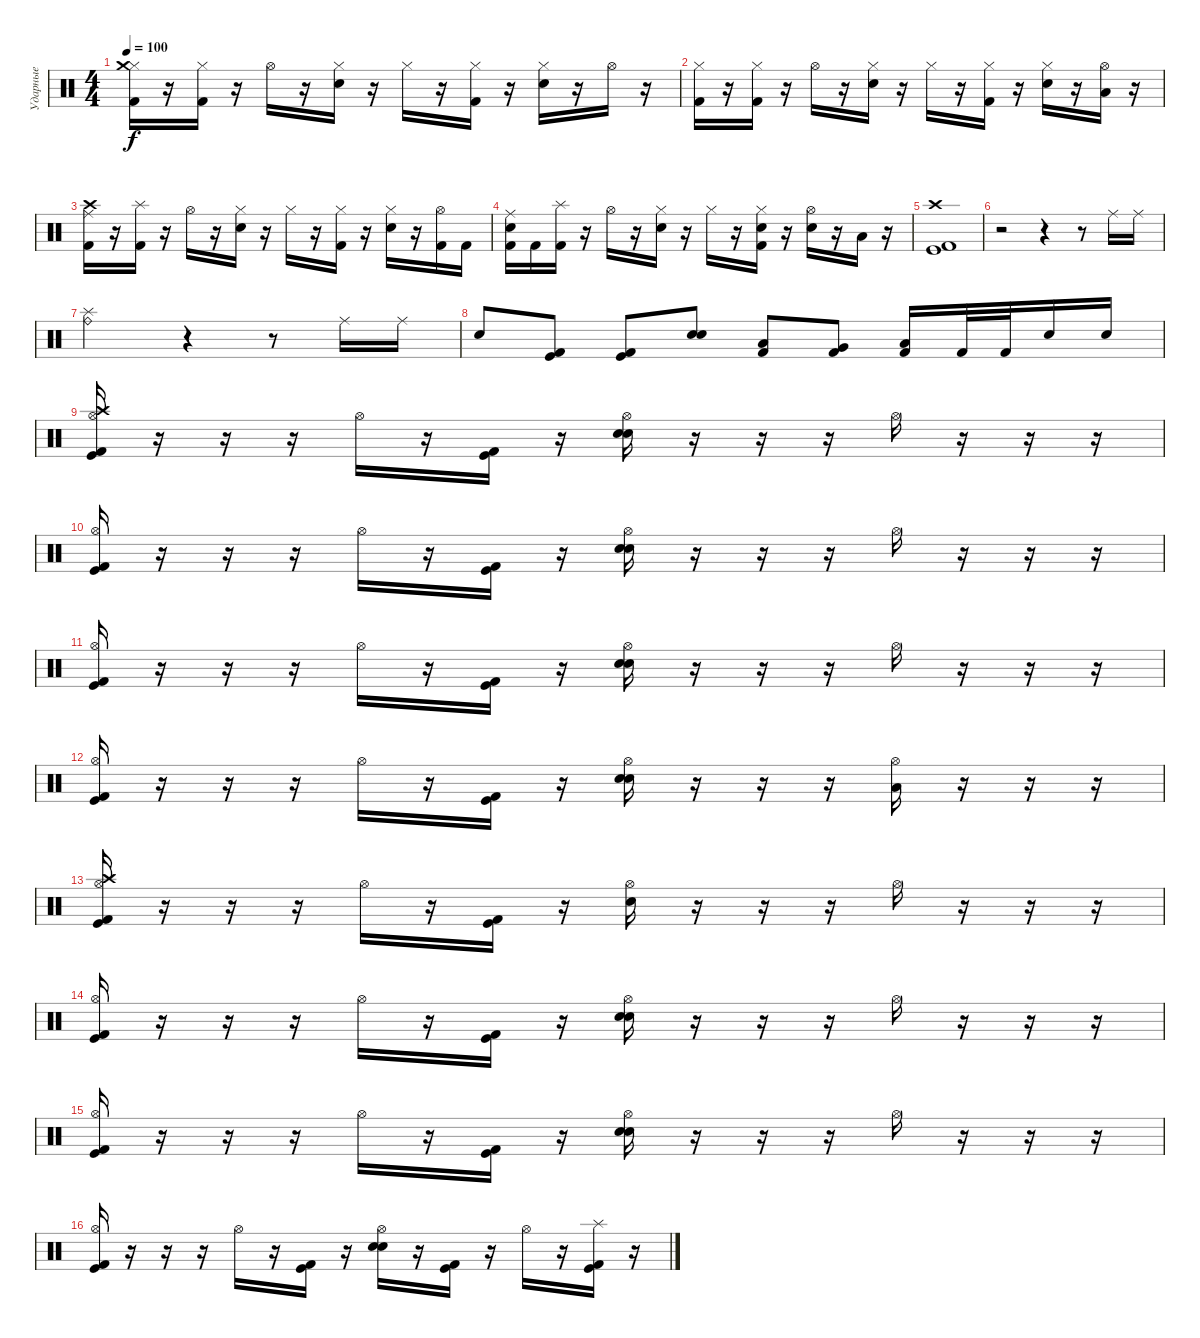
\track ("Ударные" "Ударные") {instrument percussion}
\staff {score}
\articulation defaults
\ts (4 4)
\tempo 100
\clef neutral
\ks c
("Hi-Hat (closed)" "Crash medium (hit)" "Kick (hit) 2").16{dy f} r.16 ("Hi-Hat (closed)" "Kick (hit) 2").16 r.16 "Hi-Hat (open)".16 r.16 ("Hi-Hat (closed)" "Electric Snare (hit)").16 r.16 "Hi-Hat (closed)".16 r.16 ("Hi-Hat (closed)" "Kick (hit) 2").16 r.16 ("Hi-Hat (closed)" "Electric Snare (hit)").16 r.16 "Hi-Hat (open)".16 r.16 |
("Hi-Hat (closed)" "Kick (hit) 2").16 r.16 ("Hi-Hat (closed)" "Kick (hit) 2").16 r.16 "Hi-Hat (open)".16 r.16 ("Hi-Hat (closed)" "Electric Snare (hit)").16 r.16 "Hi-Hat (closed)".16 r.16 ("Hi-Hat (closed)" "Kick (hit) 2").16 r.16 ("Hi-Hat (closed)" "Electric Snare (hit)").16 r.16 ("Hi-Hat (open)" "Low Tom (hit)").16 r.16 |
("Ride (middle)" "Crash high (hit)" "Kick (hit) 2").16 r.16 ("Splash (hit)" "Kick (hit) 2").16 r.16 "Hi-Hat (open)".16 r.16 ("Hi-Hat (closed)" "Electric Snare (hit)").16 r.16 "Hi-Hat (closed)".16 r.16 ("Hi-Hat (closed)" "Kick (hit) 2").16 r.16 ("Hi-Hat (closed)" "Electric Snare (hit)").16 r.16 ("Hi-Hat (open)" "Kick (hit) 2").16 "Kick (hit) 2".16 |
("Ride (middle)" "Electric Snare (hit)" "Kick (hit) 2").16 "Kick (hit) 2".16 ("Splash (hit)" "Kick (hit) 2").16 r.16 "Hi-Hat (open)".16 r.16 ("Hi-Hat (closed)" "Electric Snare (hit)").16 r.16 "Hi-Hat (closed)".16 r.16 ("Hi-Hat (closed)" "Electric Snare (hit)" "Kick (hit) 2").16 r.16 ("Hi-Hat (open)" "Electric Snare (hit)").16 r.16 "Low Tom (hit)".16 r.16 |
("Crash high (hit)" "Kick (hit) 2" "Kick (hit)").1 |
r.2 r.4 r.8 "Ride (middle)".16 "Ride (middle)".16 |
("Ride (bell)" "Splash (hit)").2 r.4 r.8 "Ride (middle)".16 "Ride (middle)".16 |
"Snare (hit) 2".8 ("Kick (hit)" "Kick (hit) 2").8 ("Kick (hit)" "Kick (hit) 2").8 ("Snare (hit) 2" "Electric Snare (hit)").8 ("Low Tom (hit)" "Kick (hit) 2").8 ("Very Low Tom (hit)" "Kick (hit) 2").8 ("Low Floor Tom (hit)" "Kick (hit) 2").16 "Kick (hit) 2".32 "Kick (hit) 2".32 "Electric Snare (hit)".16 "Electric Snare (hit)".16 |
("Hi-Hat (open)" "Crash high (hit)" "Kick (hit)" "Kick (hit) 2").16 r.16 r.16 r.16 "Hi-Hat (open)".16 r.16 ("Kick (hit)" "Kick (hit) 2").16 r.16 ("Hi-Hat (open)" "Electric Snare (hit)" "Snare (hit) 2").16 r.16 r.16 r.16 "Hi-Hat (open)".16 r.16 r.16 r.16 |
("Hi-Hat (open)" "Kick (hit)" "Kick (hit) 2").16 r.16 r.16 r.16 "Hi-Hat (open)".16 r.16 ("Kick (hit)" "Kick (hit) 2").16 r.16 ("Hi-Hat (open)" "Electric Snare (hit)" "Snare (hit) 2").16 r.16 r.16 r.16 "Hi-Hat (open)".16 r.16 r.16 r.16 |
("Hi-Hat (open)" "Kick (hit)" "Kick (hit) 2").16 r.16 r.16 r.16 "Hi-Hat (open)".16 r.16 ("Kick (hit)" "Kick (hit) 2").16 r.16 ("Hi-Hat (open)" "Electric Snare (hit)" "Snare (hit) 2").16 r.16 r.16 r.16 "Hi-Hat (open)".16 r.16 r.16 r.16 |
("Hi-Hat (open)" "Kick (hit)" "Kick (hit) 2").16 r.16 r.16 r.16 "Hi-Hat (open)".16 r.16 ("Kick (hit)" "Kick (hit) 2").16 r.16 ("Hi-Hat (open)" "Electric Snare (hit)" "Snare (hit) 2").16 r.16 r.16 r.16 ("Hi-Hat (open)" "Low Tom (hit)").16 r.16 r.16 r.16 |
("Hi-Hat (open)" "Crash high (hit)" "Kick (hit)" "Kick (hit) 2").16 r.16 r.16 r.16 "Hi-Hat (open)".16 r.16 ("Kick (hit)" "Kick (hit) 2").16 r.16 ("Hi-Hat (open)" "Snare (hit) 2").16 r.16 r.16 r.16 "Hi-Hat (open)".16 r.16 r.16 r.16 |
("Hi-Hat (open)" "Kick (hit)" "Kick (hit) 2").16 r.16 r.16 r.16 "Hi-Hat (open)".16 r.16 ("Kick (hit)" "Kick (hit) 2").16 r.16 ("Hi-Hat (open)" "Electric Snare (hit)" "Snare (hit) 2").16 r.16 r.16 r.16 "Hi-Hat (open)".16 r.16 r.16 r.16 |
("Hi-Hat (open)" "Kick (hit)" "Kick (hit) 2").16 r.16 r.16 r.16 "Hi-Hat (open)".16 r.16 ("Kick (hit)" "Kick (hit) 2").16 r.16 ("Hi-Hat (open)" "Electric Snare (hit)" "Snare (hit) 2").16 r.16 r.16 r.16 "Hi-Hat (open)".16 r.16 r.16 r.16 |
("Hi-Hat (open)" "Kick (hit)" "Kick (hit) 2").16 r.16 r.16 r.16 "Hi-Hat (open)".16 r.16 ("Kick (hit)" "Kick (hit) 2").16 r.16 ("Hi-Hat (open)" "Electric Snare (hit)" "Snare (hit) 2").16 r.16 ("Kick (hit) 2" "Kick (hit)").16 r.16 "Hi-Hat (open)".16 r.16 ("Splash (hit)" "Kick (hit) 2" "Kick (hit)").16 r.16
